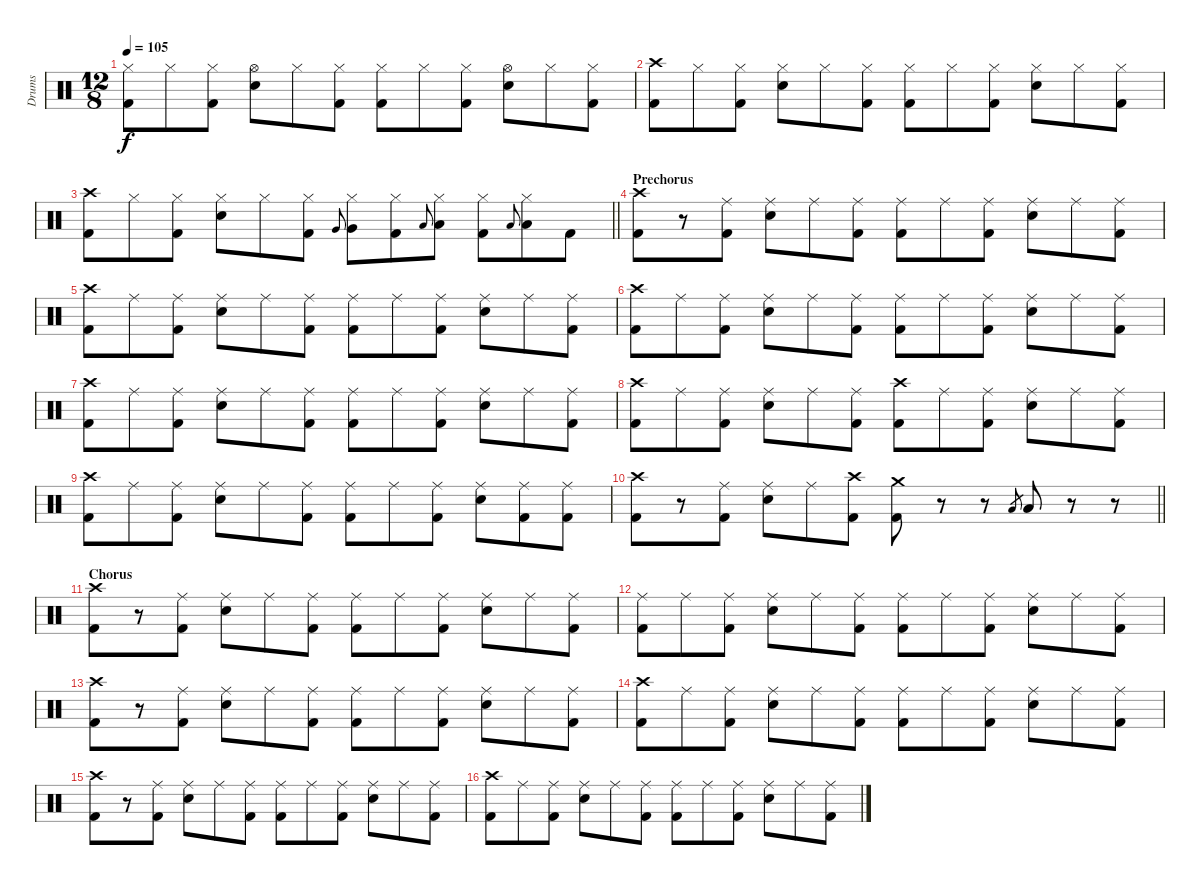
\track ("Drums" "Drums") {instrument percussion}
\staff {score}
\articulation defaults
\ts (12 8)
\tempo 105
\clef neutral
\ks c
("Hi-Hat (closed)" "Kick (hit) 2").8{dy f} "Hi-Hat (closed)".8 ("Hi-Hat (closed)" "Kick (hit) 2").8 ("Hi-Hat (open)" "Snare (hit) 2").8 "Hi-Hat (closed)".8 ("Hi-Hat (closed)" "Kick (hit) 2").8 ("Hi-Hat (closed)" "Kick (hit) 2").8 "Hi-Hat (closed)".8 ("Hi-Hat (closed)" "Kick (hit) 2").8 ("Hi-Hat (open)" "Snare (hit) 2").8 "Hi-Hat (closed)".8 ("Hi-Hat (closed)" "Kick (hit) 2").8 |
("Crash high (hit)" "Kick (hit) 2").8 "Hi-Hat (closed)".8 ("Hi-Hat (closed)" "Kick (hit) 2").8 ("Hi-Hat (closed)" "Snare (hit) 2").8 "Hi-Hat (closed)".8 ("Hi-Hat (closed)" "Kick (hit) 2").8 ("Hi-Hat (closed)" "Kick (hit) 2").8 "Hi-Hat (closed)".8 ("Hi-Hat (closed)" "Kick (hit) 2").8 ("Hi-Hat (closed)" "Snare (hit) 2").8 "Hi-Hat (closed)".8 ("Hi-Hat (closed)" "Kick (hit) 2").8 |
\barLineRight lightlight
("Crash high (hit)" "Kick (hit) 2").8 "Hi-Hat (closed)".8 ("Hi-Hat (closed)" "Kick (hit) 2").8 ("Hi-Hat (closed)" "Snare (hit) 2").8 "Hi-Hat (closed)".8 ("Hi-Hat (closed)" "Kick (hit) 2").8 "Very Low Tom (hit)".8{gr onbeat} ("Hi-Hat (closed)" "Very Low Tom (hit)").8 ("Hi-Hat (closed)" "Kick (hit) 2").8 "Low Tom (hit)".8{gr onbeat} ("Hi-Hat (closed)" "Low Tom (hit)").8 ("Hi-Hat (closed)" "Kick (hit) 2").8 "Low Floor Tom (hit)".8{gr onbeat} ("Hi-Hat (closed)" "Low Floor Tom (hit)").8 "Kick (hit) 2".8 |
\section ("" "Prechorus")
("Crash high (hit)" "Kick (hit) 2").8 r.8 ("Ride (middle)" "Kick (hit) 2").8 ("Ride (middle)" "Snare (hit) 2").8 "Ride (middle)".8 ("Ride (middle)" "Kick (hit) 2").8 ("Ride (middle)" "Kick (hit) 2").8 "Ride (middle)".8 ("Ride (middle)" "Kick (hit) 2").8 ("Ride (middle)" "Snare (hit) 2").8 "Ride (middle)".8 ("Ride (middle)" "Kick (hit) 2").8 |
("Crash high (hit)" "Kick (hit) 2").8 "Ride (middle)".8 ("Ride (middle)" "Kick (hit) 2").8 ("Ride (middle)" "Snare (hit) 2").8 "Ride (middle)".8 ("Ride (middle)" "Kick (hit) 2").8 ("Ride (middle)" "Kick (hit) 2").8 "Ride (middle)".8 ("Ride (middle)" "Kick (hit) 2").8 ("Ride (middle)" "Snare (hit) 2").8 "Ride (middle)".8 ("Ride (middle)" "Kick (hit) 2").8 |
("Crash high (hit)" "Kick (hit) 2").8 "Ride (middle)".8 ("Ride (middle)" "Kick (hit) 2").8 ("Ride (middle)" "Snare (hit) 2").8 "Ride (middle)".8 ("Ride (middle)" "Kick (hit) 2").8 ("Ride (middle)" "Kick (hit) 2").8 "Ride (middle)".8 ("Ride (middle)" "Kick (hit) 2").8 ("Ride (middle)" "Snare (hit) 2").8 "Ride (middle)".8 ("Ride (middle)" "Kick (hit) 2").8 |
("Crash high (hit)" "Kick (hit) 2").8 "Ride (middle)".8 ("Ride (middle)" "Kick (hit) 2").8 ("Ride (middle)" "Snare (hit) 2").8 "Ride (middle)".8 ("Ride (middle)" "Kick (hit) 2").8 ("Ride (middle)" "Kick (hit) 2").8 "Ride (middle)".8 ("Ride (middle)" "Kick (hit) 2").8 ("Ride (middle)" "Snare (hit) 2").8 "Ride (middle)".8 ("Ride (middle)" "Kick (hit) 2").8 |
("Crash high (hit)" "Kick (hit) 2").8 "Ride (middle)".8 ("Ride (middle)" "Kick (hit) 2").8 ("Ride (middle)" "Snare (hit) 2").8 "Ride (middle)".8 ("Ride (middle)" "Kick (hit) 2").8 ("Crash high (hit)" "Kick (hit) 2").8 "Ride (middle)".8 ("Ride (middle)" "Kick (hit) 2").8 ("Ride (middle)" "Snare (hit) 2").8 "Ride (middle)".8 ("Ride (middle)" "Kick (hit) 2").8 |
("Crash high (hit)" "Kick (hit) 2").8 "Ride (middle)".8 ("Ride (middle)" "Kick (hit) 2").8 ("Ride (middle)" "Snare (hit) 2").8 "Ride (middle)".8 ("Ride (middle)" "Kick (hit) 2").8 ("Ride (middle)" "Kick (hit) 2").8 "Ride (middle)".8 ("Ride (middle)" "Kick (hit) 2").8 ("Ride (middle)" "Snare (hit) 2").8 ("Ride (middle)" "Kick (hit) 2").8 ("Ride (middle)" "Kick (hit) 2").8 |
\barLineRight lightlight
("Crash high (hit)" "Kick (hit) 2").8 r.8 ("Ride (middle)" "Kick (hit) 2").8 ("Ride (middle)" "Snare (hit) 2").8 "Ride (middle)".8 ("Crash high (hit)" "Kick (hit) 2").8 ("Crash medium (hit)" "Kick (hit) 2").8 r.8 r.8 "Low Floor Tom (hit)".8{gr} "Low Floor Tom (hit)".8 r.8 r.8 |
\section ("" "Chorus")
("Crash high (hit)" "Kick (hit) 2").8 r.8 ("Ride (middle)" "Kick (hit) 2").8 ("Ride (middle)" "Snare (hit) 2").8 "Ride (middle)".8 ("Ride (middle)" "Kick (hit) 2").8 ("Ride (middle)" "Kick (hit) 2").8 "Ride (middle)".8 ("Ride (middle)" "Kick (hit) 2").8 ("Ride (middle)" "Snare (hit) 2").8 "Ride (middle)".8 ("Ride (middle)" "Kick (hit) 2").8 |
("Ride (middle)" "Kick (hit) 2").8 "Ride (middle)".8 ("Ride (middle)" "Kick (hit) 2").8 ("Ride (middle)" "Snare (hit) 2").8 "Ride (middle)".8 ("Ride (middle)" "Kick (hit) 2").8 ("Ride (middle)" "Kick (hit) 2").8 "Ride (middle)".8 ("Ride (middle)" "Kick (hit) 2").8 ("Ride (middle)" "Snare (hit) 2").8 "Ride (middle)".8 ("Ride (middle)" "Kick (hit) 2").8 |
("Crash high (hit)" "Kick (hit) 2").8 r.8 ("Ride (middle)" "Kick (hit) 2").8 ("Ride (middle)" "Snare (hit) 2").8 "Ride (middle)".8 ("Ride (middle)" "Kick (hit) 2").8 ("Ride (middle)" "Kick (hit) 2").8 "Ride (middle)".8 ("Ride (middle)" "Kick (hit) 2").8 ("Ride (middle)" "Snare (hit) 2").8 "Ride (middle)".8 ("Ride (middle)" "Kick (hit) 2").8 |
("Crash high (hit)" "Kick (hit) 2").8 "Ride (middle)".8 ("Ride (middle)" "Kick (hit) 2").8 ("Ride (middle)" "Snare (hit) 2").8 "Ride (middle)".8 ("Ride (middle)" "Kick (hit) 2").8 ("Ride (middle)" "Kick (hit) 2").8 "Ride (middle)".8 ("Ride (middle)" "Kick (hit) 2").8 ("Ride (middle)" "Snare (hit) 2").8 "Ride (middle)".8 ("Ride (middle)" "Kick (hit) 2").8 |
("Crash high (hit)" "Kick (hit) 2").8 r.8 ("Ride (middle)" "Kick (hit) 2").8 ("Ride (middle)" "Snare (hit) 2").8 "Ride (middle)".8 ("Ride (middle)" "Kick (hit) 2").8 ("Ride (middle)" "Kick (hit) 2").8 "Ride (middle)".8 ("Ride (middle)" "Kick (hit) 2").8 ("Ride (middle)" "Snare (hit) 2").8 "Ride (middle)".8 ("Ride (middle)" "Kick (hit) 2").8 |
("Crash high (hit)" "Kick (hit) 2").8 "Ride (middle)".8 ("Ride (middle)" "Kick (hit) 2").8 ("Ride (middle)" "Snare (hit) 2").8 "Ride (middle)".8 ("Ride (middle)" "Kick (hit) 2").8 ("Ride (middle)" "Kick (hit) 2").8 "Ride (middle)".8 ("Ride (middle)" "Kick (hit) 2").8 ("Ride (middle)" "Snare (hit) 2").8 "Ride (middle)".8 ("Ride (middle)" "Kick (hit) 2").8
